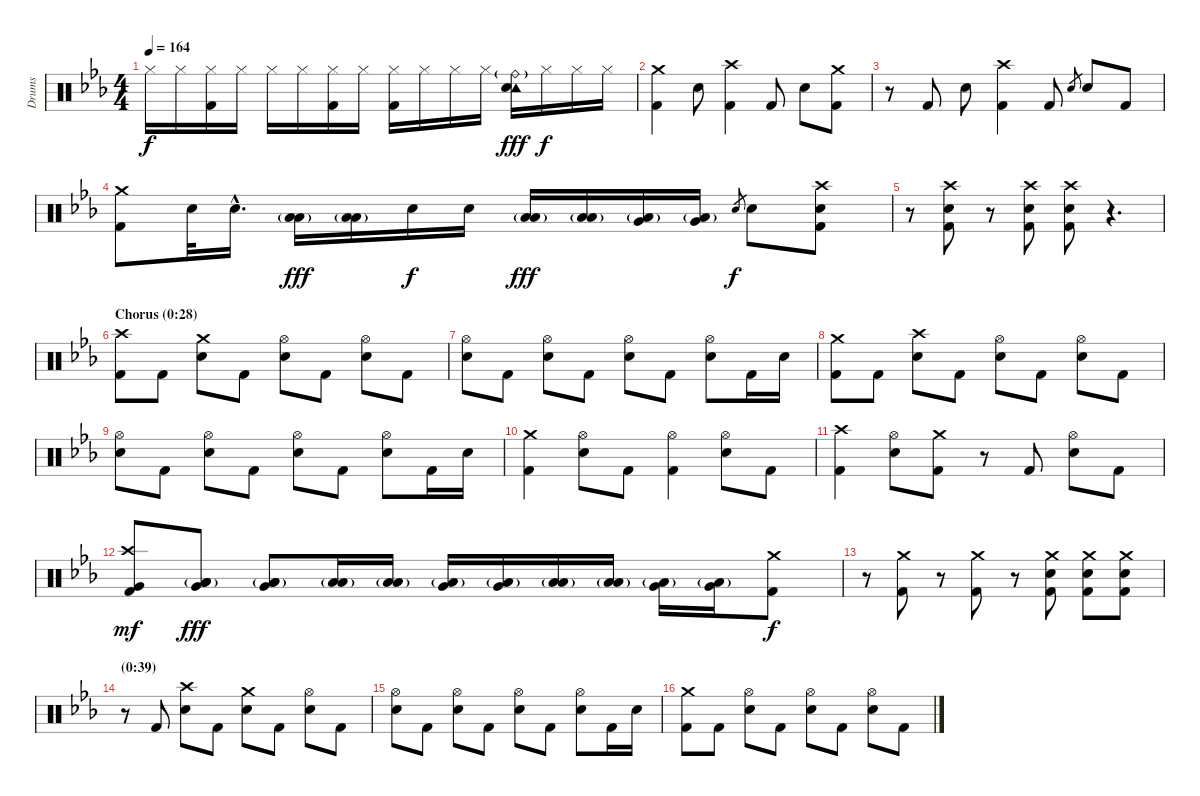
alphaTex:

\track ("Drums" "Drums") {instrument percussion}
\staff {score}
\articulation defaults
\ts (4 4)
\tempo 164
\clef neutral
\ks eb "Hi-Hat (closed)".16{dy f} "Hi-Hat (closed)".16
("Hi-Hat (closed)" "Kick (hit) 2").16 "Hi-Hat (closed)".16 "Hi-Hat (closed)".16 "Hi-Hat (closed)".16 ("Hi-Hat (closed)" "Kick (hit) 2").16 "Hi-Hat (closed)".16 ("Hi-Hat (closed)" "Kick (hit) 2").16 "Hi-Hat (closed)".16 "Hi-Hat (closed)".16 "Hi-Hat (closed)".16 ("Ride (bell)"{g} "Tambourine (hit)" "Electric Snare (hit)").16{dy fff} "Hi-Hat (closed)".16{dy f} "Hi-Hat (closed)".16 "Hi-Hat (closed)".16 |
("Crash medium (hit)" "Kick (hit) 2").4 "Electric Snare (hit)".8 ("Crash high (hit)" "Kick (hit) 2").4 "Kick (hit) 2".8 "Electric Snare (hit)".8 ("Crash medium (hit)" "Kick (hit) 2").8 |
r.8 "Kick (hit) 2".8 "Electric Snare (hit)".8 ("Crash high (hit)" "Kick (hit) 2").4 "Kick (hit) 2".8 "Electric Snare (hit)".8{gr} "Electric Snare (hit)".8 "Kick (hit) 2".8 |
("Crash medium (hit)" "Kick (hit) 2").8 "Electric Snare (hit)".32 "Electric Snare (hit)"{hac}.16{d} ("Low Tom (hit)" "Low Floor Tom (hit)"{g}).16{dy fff} ("Low Tom (hit)" "Low Floor Tom (hit)"{g}).16 "Electric Snare (hit)".16{dy f} "Electric Snare (hit)".16 ("Low Tom (hit)" "Low Floor Tom (hit)"{g}).16{dy fff} ("Low Tom (hit)" "Low Floor Tom (hit)"{g}).16 ("Very Low Tom (hit)" "Low Floor Tom (hit)"{g}).16 ("Very Low Tom (hit)" "Low Floor Tom (hit)"{g}).16 "Electric Snare (hit)".8{gr dy f} "Electric Snare (hit)".8 ("Crash high (hit)" "Electric Snare (hit)" "Kick (hit) 2").8 |
r.8{volume 0} ("Crash high (hit)" "Electric Snare (hit)" "Kick (hit) 2").8{volume 16} r.8{volume 0} ("Crash high (hit)" "Electric Snare (hit)" "Kick (hit) 2").8{volume 16} ("Crash high (hit)" "Electric Snare (hit)" "Kick (hit) 2").8 r.4{d volume 0} |
\section ("" "Chorus (0:28)")
("Crash high (hit)" "Kick (hit) 2").8{volume 16} "Kick (hit) 2".8 ("Crash medium (hit)" "Electric Snare (hit)").8 "Kick (hit) 2".8 ("Hi-Hat (open)" "Electric Snare (hit)").8 "Kick (hit) 2".8 ("Hi-Hat (open)" "Electric Snare (hit)").8 "Kick (hit) 2".8 |
("Hi-Hat (open)" "Electric Snare (hit)").8 "Kick (hit) 2".8 ("Hi-Hat (open)" "Electric Snare (hit)").8 "Kick (hit) 2".8 ("Hi-Hat (open)" "Electric Snare (hit)").8 "Kick (hit) 2".8 ("Hi-Hat (open)" "Electric Snare (hit)").8 "Kick (hit) 2".16 "Electric Snare (hit)".16 |
("Crash medium (hit)" "Kick (hit) 2").8 "Kick (hit) 2".8 ("Crash high (hit)" "Electric Snare (hit)").8 "Kick (hit) 2".8 ("Hi-Hat (open)" "Electric Snare (hit)").8 "Kick (hit) 2".8 ("Hi-Hat (open)" "Electric Snare (hit)").8 "Kick (hit) 2".8 |
("Hi-Hat (open)" "Electric Snare (hit)").8 "Kick (hit) 2".8 ("Hi-Hat (open)" "Electric Snare (hit)").8 "Kick (hit) 2".8 ("Hi-Hat (open)" "Electric Snare (hit)").8 "Kick (hit) 2".8 ("Hi-Hat (open)" "Electric Snare (hit)").8 "Kick (hit) 2".16 "Electric Snare (hit)".16 |
("Crash medium (hit)" "Kick (hit) 2").4 ("Hi-Hat (open)" "Electric Snare (hit)").8 "Kick (hit) 2".8 ("Hi-Hat (open)" "Kick (hit) 2").4 ("Hi-Hat (open)" "Electric Snare (hit)").8 "Kick (hit) 2".8 |
("Crash high (hit)" "Kick (hit) 2").4 ("Hi-Hat (open)" "Electric Snare (hit)").8 ("Crash medium (hit)" "Kick (hit) 2").8 r.8 "Kick (hit) 2".8 ("Hi-Hat (open)" "Electric Snare (hit)").8 "Kick (hit) 2".8 |
("Crash high (hit)" "Very Low Tom (hit)" "Kick (hit) 2").8{dy mf} ("Low Tom (hit)" "Very Low Tom (hit)" "Low Floor Tom (hit)"{g}).8{dy fff} ("Low Tom (hit)" "Very Low Tom (hit)" "Low Floor Tom (hit)"{g}).8 ("Low Tom (hit)" "Low Floor Tom (hit)"{g}).16 ("Low Tom (hit)" "Low Floor Tom (hit)"{g}).16 ("Very Low Tom (hit)" "Low Floor Tom (hit)"{g}).16 ("Very Low Tom (hit)" "Low Floor Tom (hit)"{g}).16 ("Low Tom (hit)" "Low Floor Tom (hit)"{g}).16 ("Low Tom (hit)" "Low Floor Tom (hit)"{g}).16 ("Very Low Tom (hit)" "Low Floor Tom (hit)"{g}).16 ("Very Low Tom (hit)" "Low Floor Tom (hit)"{g}).16 ("Crash medium (hit)" "Kick (hit) 2").8{dy f} |
r.8 ("Crash medium (hit)" "Kick (hit) 2").8 r.8 ("Crash medium (hit)" "Kick (hit) 2").8 r.8{volume 0} ("Crash medium (hit)" "Electric Snare (hit)" "Kick (hit) 2").8{volume 16} ("Crash medium (hit)" "Electric Snare (hit)" "Kick (hit) 2").8 ("Crash medium (hit)" "Electric Snare (hit)" "Kick (hit) 2").8 |
\section ("" "(0:39)")
r.8{volume 0} "Kick (hit) 2".8{volume 16} ("Crash high (hit)" "Electric Snare (hit)").8 "Kick (hit) 2".8 ("Crash medium (hit)" "Electric Snare (hit)").8 "Kick (hit) 2".8 ("Hi-Hat (open)" "Electric Snare (hit)").8 "Kick (hit) 2".8 |
("Hi-Hat (open)" "Electric Snare (hit)").8 "Kick (hit) 2".8 ("Hi-Hat (open)" "Electric Snare (hit)").8 "Kick (hit) 2".8 ("Hi-Hat (open)" "Electric Snare (hit)").8 "Kick (hit) 2".8 ("Hi-Hat (open)" "Electric Snare (hit)").8 "Kick (hit) 2".16 "Electric Snare (hit)".16 |
("Crash medium (hit)" "Kick (hit) 2").8 "Kick (hit) 2".8 ("Hi-Hat (open)" "Electric Snare (hit)").8 "Kick (hit) 2".8 ("Hi-Hat (open)" "Electric Snare (hit)").8 "Kick (hit) 2".8 ("Hi-Hat (open)" "Electric Snare (hit)").8 "Kick (hit) 2".8
